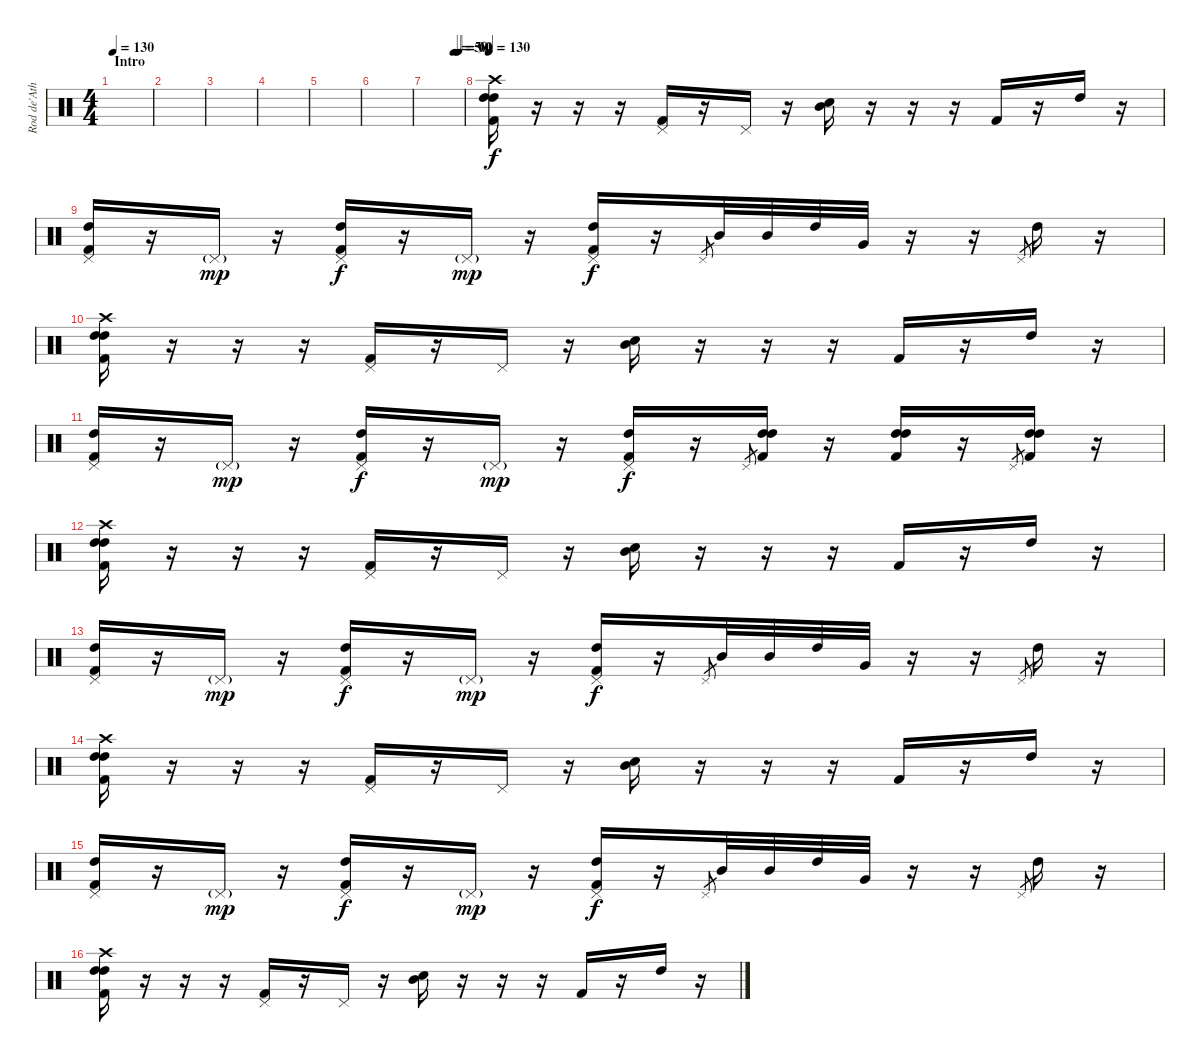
\track ("Rod de'Ath" "Rod de'Ath") {instrument percussion}
\staff {score}
\articulation defaults
\ts (4 4)
\section ("" "Intro")
\tempo 130
\tempo 90
\tempo 130
\clef neutral
\ks c
|
|
|
|
|
|
\tempo (50 0.75)
\tempo (90 0.84375)
\tempo (60 0.875)
|
\tempo 125
\tempo 130
("Crash high (hit)" "High Tom (hit)" "High Tom (hit)" "Kick (hit) 2").16 r.16 r.16 r.16 ("Pedal Hi-Hat (hit)" "Kick (hit) 2").16 r.16 "Pedal Hi-Hat (hit)".16 r.16 ("Electric Snare (hit)" "Mid Tom (hit)").16 r.16 r.16 r.16 "Kick (hit) 2".16 r.16 "High Tom (hit)".16 r.16 |
("Pedal Hi-Hat (hit)" "High Tom (hit)" "Kick (hit) 2").16 r.16 "Pedal Hi-Hat (hit)"{g}.16{dy mp} r.16 ("Pedal Hi-Hat (hit)" "High Tom (hit)" "Kick (hit) 2").16{dy f} r.16 "Pedal Hi-Hat (hit)"{g}.16{dy mp} r.16 ("Pedal Hi-Hat (hit)" "High Tom (hit)" "Kick (hit) 2").16{dy f} r.16 "Pedal Hi-Hat (hit)".8{gr} "Mid Tom (hit)".32 "Mid Tom (hit)".32 "High Tom (hit)".32 "Very Low Tom (hit)".32 r.16 r.16 "Pedal Hi-Hat (hit)".8{gr} "High Tom (hit)".16 r.16 |
("Crash high (hit)" "High Tom (hit)" "High Tom (hit)" "Kick (hit) 2").16 r.16 r.16 r.16 ("Pedal Hi-Hat (hit)" "Kick (hit) 2").16 r.16 "Pedal Hi-Hat (hit)".16 r.16 ("Electric Snare (hit)" "Mid Tom (hit)").16 r.16 r.16 r.16 "Kick (hit) 2".16 r.16 "High Tom (hit)".16 r.16 |
("Pedal Hi-Hat (hit)" "High Tom (hit)" "Kick (hit) 2").16 r.16 "Pedal Hi-Hat (hit)"{g}.16{dy mp} r.16 ("Pedal Hi-Hat (hit)" "High Tom (hit)" "Kick (hit) 2").16{dy f} r.16 "Pedal Hi-Hat (hit)"{g}.16{dy mp} r.16 ("Pedal Hi-Hat (hit)" "High Tom (hit)" "Kick (hit) 2").16{dy f} r.16 "Pedal Hi-Hat (hit)".8{gr} ("High Tom (hit)" "High Tom (hit)" "Kick (hit) 2").16 r.16 ("High Tom (hit)" "High Tom (hit)" "Kick (hit) 2").16 r.16 "Pedal Hi-Hat (hit)".8{gr} ("High Tom (hit)" "High Tom (hit)" "Kick (hit) 2").16 r.16 |
("Crash high (hit)" "High Tom (hit)" "High Tom (hit)" "Kick (hit) 2").16 r.16 r.16 r.16 ("Pedal Hi-Hat (hit)" "Kick (hit) 2").16 r.16 "Pedal Hi-Hat (hit)".16 r.16 ("Electric Snare (hit)" "Mid Tom (hit)").16 r.16 r.16 r.16 "Kick (hit) 2".16 r.16 "High Tom (hit)".16 r.16 |
("Pedal Hi-Hat (hit)" "High Tom (hit)" "Kick (hit) 2").16 r.16 "Pedal Hi-Hat (hit)"{g}.16{dy mp} r.16 ("Pedal Hi-Hat (hit)" "High Tom (hit)" "Kick (hit) 2").16{dy f} r.16 "Pedal Hi-Hat (hit)"{g}.16{dy mp} r.16 ("Pedal Hi-Hat (hit)" "High Tom (hit)" "Kick (hit) 2").16{dy f} r.16 "Pedal Hi-Hat (hit)".8{gr} "Mid Tom (hit)".32 "Mid Tom (hit)".32 "High Tom (hit)".32 "Very Low Tom (hit)".32 r.16 r.16 "Pedal Hi-Hat (hit)".8{gr} "High Tom (hit)".16 r.16 |
("Crash high (hit)" "High Tom (hit)" "High Tom (hit)" "Kick (hit) 2").16 r.16 r.16 r.16 ("Pedal Hi-Hat (hit)" "Kick (hit) 2").16 r.16 "Pedal Hi-Hat (hit)".16 r.16 ("Electric Snare (hit)" "Mid Tom (hit)").16 r.16 r.16 r.16 "Kick (hit) 2".16 r.16 "High Tom (hit)".16 r.16 |
("Pedal Hi-Hat (hit)" "High Tom (hit)" "Kick (hit) 2").16 r.16 "Pedal Hi-Hat (hit)"{g}.16{dy mp} r.16 ("Pedal Hi-Hat (hit)" "High Tom (hit)" "Kick (hit) 2").16{dy f} r.16 "Pedal Hi-Hat (hit)"{g}.16{dy mp} r.16 ("Pedal Hi-Hat (hit)" "High Tom (hit)" "Kick (hit) 2").16{dy f} r.16 "Pedal Hi-Hat (hit)".8{gr} "Mid Tom (hit)".32 "Mid Tom (hit)".32 "High Tom (hit)".32 "Very Low Tom (hit)".32 r.16 r.16 "Pedal Hi-Hat (hit)".8{gr} "High Tom (hit)".16 r.16 |
("Crash high (hit)" "High Tom (hit)" "High Tom (hit)" "Kick (hit) 2").16 r.16 r.16 r.16 ("Pedal Hi-Hat (hit)" "Kick (hit) 2").16 r.16 "Pedal Hi-Hat (hit)".16 r.16 ("Electric Snare (hit)" "Mid Tom (hit)").16 r.16 r.16 r.16 "Kick (hit) 2".16 r.16 "High Tom (hit)".16 r.16
